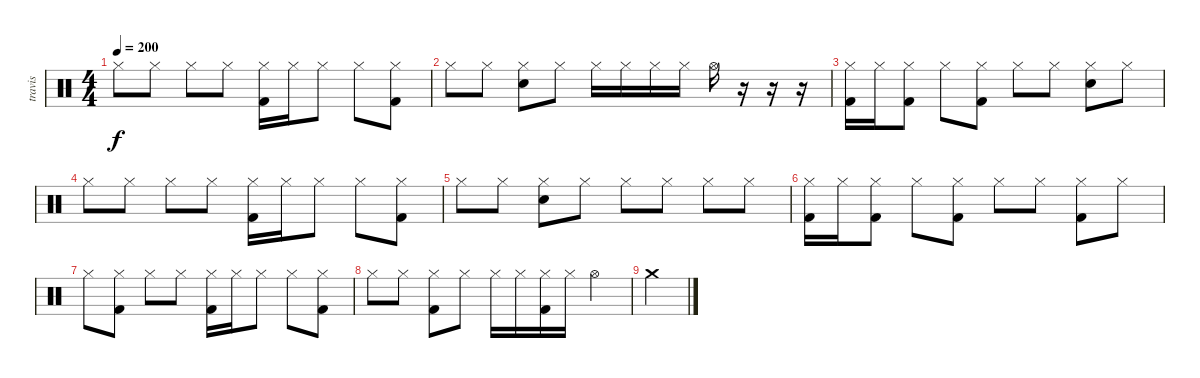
\track ("travis" "travis") {instrument percussion}
\staff {score}
\articulation defaults
\ts (4 4)
\tempo 200
\clef neutral
\ks c "Hi-Hat (closed)".8{dy f} "Hi-Hat (closed)".8 "Hi-Hat (closed)".8 "Hi-Hat (closed)".8
("Hi-Hat (closed)" "Kick (hit) 2").16 "Hi-Hat (closed)".16 "Hi-Hat (closed)".8 "Hi-Hat (closed)".8 ("Hi-Hat (closed)" "Kick (hit) 2").8 |
"Hi-Hat (closed)".8 "Hi-Hat (closed)".8 ("Hi-Hat (closed)" "Electric Snare (hit)").8 "Hi-Hat (closed)".8 "Hi-Hat (closed)".16 "Hi-Hat (closed)".16 "Hi-Hat (closed)".16 "Hi-Hat (closed)".16 "Hi-Hat (open)".16 r.16 r.16 r.16 |
("Hi-Hat (closed)" "Kick (hit) 2").16 "Hi-Hat (closed)".16 ("Hi-Hat (closed)" "Kick (hit) 2").8 "Hi-Hat (closed)".8 ("Hi-Hat (closed)" "Kick (hit) 2").8 "Hi-Hat (closed)".8 "Hi-Hat (closed)".8 ("Hi-Hat (closed)" "Electric Snare (hit)").8 "Hi-Hat (closed)".8 |
"Hi-Hat (closed)".8 "Hi-Hat (closed)".8 "Hi-Hat (closed)".8 "Hi-Hat (closed)".8 ("Hi-Hat (closed)" "Kick (hit) 2").16 "Hi-Hat (closed)".16 "Hi-Hat (closed)".8 "Hi-Hat (closed)".8 ("Hi-Hat (closed)" "Kick (hit) 2").8 |
"Hi-Hat (closed)".8 "Hi-Hat (closed)".8 ("Hi-Hat (closed)" "Electric Snare (hit)").8 "Hi-Hat (closed)".8 "Hi-Hat (closed)".8 "Hi-Hat (closed)".8 "Hi-Hat (closed)".8 "Hi-Hat (closed)".8 |
("Hi-Hat (closed)" "Kick (hit) 2").16 "Hi-Hat (closed)".16 ("Hi-Hat (closed)" "Kick (hit) 2").8 "Hi-Hat (closed)".8 ("Hi-Hat (closed)" "Kick (hit) 2").8 "Hi-Hat (closed)".8 "Hi-Hat (closed)".8 ("Hi-Hat (closed)" "Kick (hit) 2").8 "Hi-Hat (closed)".8 |
"Hi-Hat (closed)".8 ("Hi-Hat (closed)" "Kick (hit) 2").8 "Hi-Hat (closed)".8 "Hi-Hat (closed)".8 ("Hi-Hat (closed)" "Kick (hit) 2").16 "Hi-Hat (closed)".16 "Hi-Hat (closed)".8 "Hi-Hat (closed)".8 ("Hi-Hat (closed)" "Kick (hit) 2").8 |
"Hi-Hat (closed)".8 "Hi-Hat (closed)".8 ("Hi-Hat (closed)" "Kick (hit) 2").8 "Hi-Hat (closed)".8 "Hi-Hat (closed)".16 "Hi-Hat (closed)".16 ("Hi-Hat (closed)" "Kick (hit) 2").16 "Hi-Hat (closed)".16 "Hi-Hat (open)".4 |
"Crash medium (hit)".4
